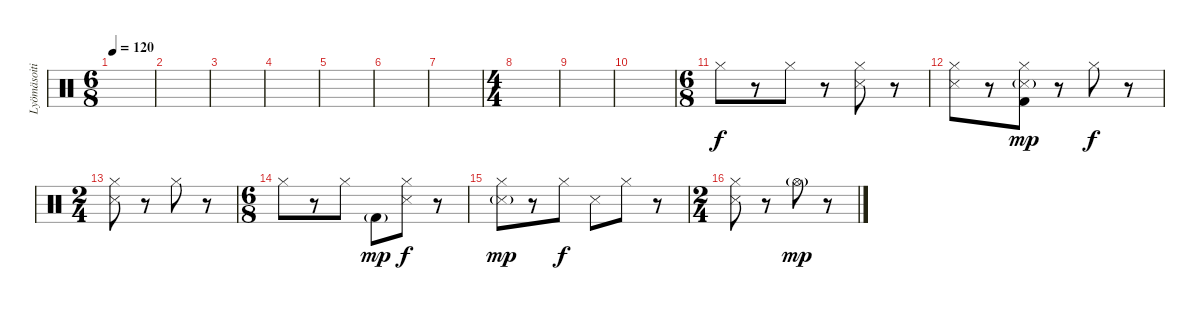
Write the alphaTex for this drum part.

\track ("Lyömäsoitin" "Lyömäsoiti") {instrument percussion}
\staff {score}
\articulation defaults
\ts (6 8)
\tempo 120
\clef neutral
\ks c
|
|
|
|
|
|
|
\ts (4 4)
|
|
|
\ts (6 8)
"Hi-Hat (closed)".8 r.8 "Hi-Hat (closed)".8 r.8 ("Hi-Hat (closed)" "Snare (side stick) 3").8 r.8 |
("Hi-Hat (closed)" "Snare (side stick) 3").8 r.8 ("Hi-Hat (closed)" "Snare (side stick) 3"{g} "Kick (hit) 2").8{dy mp} r.8 "Hi-Hat (closed)".8{dy f} r.8 |
\ts (2 4)
("Hi-Hat (closed)" "Snare (side stick) 3").8 r.8 "Hi-Hat (closed)".8 r.8 |
\ts (6 8)
"Hi-Hat (closed)".8 r.8 "Hi-Hat (closed)".8 "Kick (hit) 2"{g}.8{dy mp} ("Hi-Hat (closed)" "Snare (side stick) 3").8{dy f} r.8 |
("Hi-Hat (closed)" "Snare (side stick) 3"{g}).8{dy mp} r.8 "Hi-Hat (closed)".8{dy f} "Snare (side stick) 3".8 "Hi-Hat (closed)".8 r.8 |
\ts (2 4)
("Hi-Hat (closed)" "Snare (side stick) 3").8 r.8 "Hi-Hat (open)"{g}.8{dy mp} r.8
